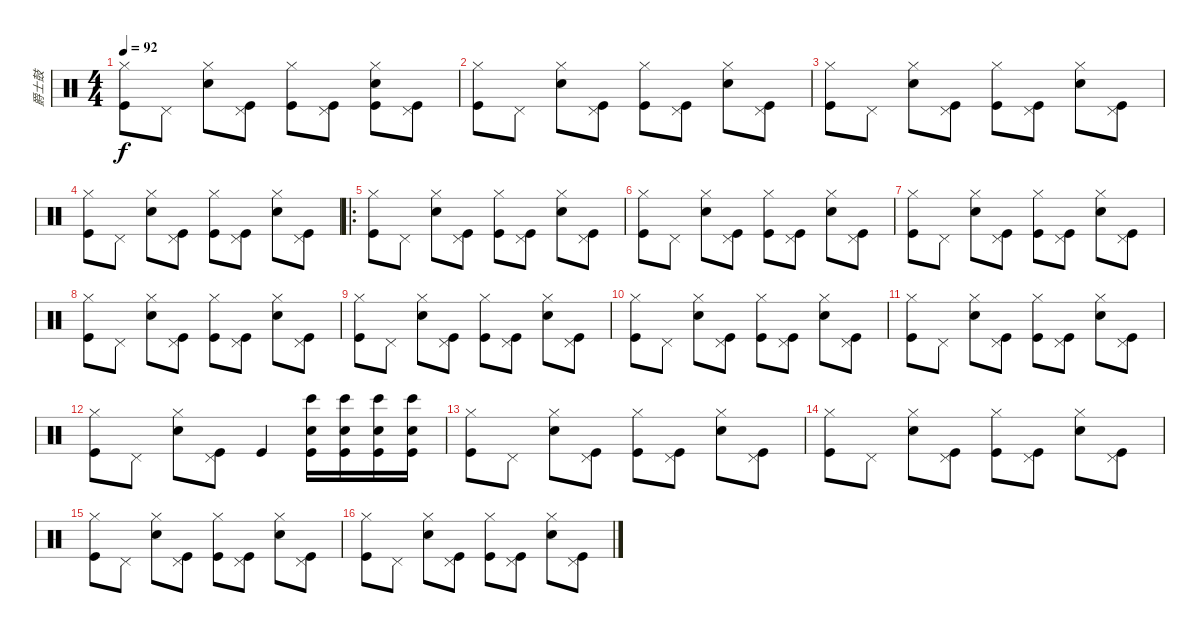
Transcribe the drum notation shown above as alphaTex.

\track ("爵士鼓" "爵士鼓") {instrument percussion}
\staff {score}
\articulation defaults
\ts (4 4)
\tempo 92
\clef neutral
\ks c
("Hi-Hat (closed)" "Kick (hit)").8{dy f} "Pedal Hi-Hat (hit)".8 ("Hi-Hat (closed)" "Snare (hit) 2").8 ("Pedal Hi-Hat (hit)" "Kick (hit)").8 ("Hi-Hat (closed)" "Kick (hit)").8 ("Pedal Hi-Hat (hit)" "Kick (hit)").8 ("Hi-Hat (closed)" "Snare (hit) 2" "Kick (hit)").8 ("Pedal Hi-Hat (hit)" "Kick (hit)").8 |
("Hi-Hat (closed)" "Kick (hit)").8 "Pedal Hi-Hat (hit)".8 ("Hi-Hat (closed)" "Snare (hit) 2").8 ("Pedal Hi-Hat (hit)" "Kick (hit)").8 ("Hi-Hat (closed)" "Kick (hit)").8 ("Pedal Hi-Hat (hit)" "Kick (hit)").8 ("Hi-Hat (closed)" "Snare (hit) 2").8 ("Pedal Hi-Hat (hit)" "Kick (hit)").8 |
("Hi-Hat (closed)" "Kick (hit)").8 "Pedal Hi-Hat (hit)".8 ("Hi-Hat (closed)" "Snare (hit) 2").8 ("Pedal Hi-Hat (hit)" "Kick (hit)").8 ("Hi-Hat (closed)" "Kick (hit)").8 ("Pedal Hi-Hat (hit)" "Kick (hit)").8 ("Hi-Hat (closed)" "Snare (hit) 2").8 ("Pedal Hi-Hat (hit)" "Kick (hit)").8 |
("Hi-Hat (closed)" "Kick (hit)").8 "Pedal Hi-Hat (hit)".8 ("Hi-Hat (closed)" "Snare (hit) 2").8 ("Pedal Hi-Hat (hit)" "Kick (hit)").8 ("Hi-Hat (closed)" "Kick (hit)").8 ("Pedal Hi-Hat (hit)" "Kick (hit)").8 ("Hi-Hat (closed)" "Snare (hit) 2").8 ("Pedal Hi-Hat (hit)" "Kick (hit)").8 |
\ro
("Hi-Hat (closed)" "Kick (hit)").8 "Pedal Hi-Hat (hit)".8 ("Hi-Hat (closed)" "Snare (hit) 2").8 ("Pedal Hi-Hat (hit)" "Kick (hit)").8 ("Hi-Hat (closed)" "Kick (hit)").8 ("Pedal Hi-Hat (hit)" "Kick (hit)").8 ("Hi-Hat (closed)" "Snare (hit) 2").8 ("Pedal Hi-Hat (hit)" "Kick (hit)").8 |
("Hi-Hat (closed)" "Kick (hit)").8 "Pedal Hi-Hat (hit)".8 ("Hi-Hat (closed)" "Snare (hit) 2").8 ("Pedal Hi-Hat (hit)" "Kick (hit)").8 ("Hi-Hat (closed)" "Kick (hit)").8 ("Pedal Hi-Hat (hit)" "Kick (hit)").8 ("Hi-Hat (closed)" "Snare (hit) 2").8 ("Pedal Hi-Hat (hit)" "Kick (hit)").8 |
("Hi-Hat (closed)" "Kick (hit)").8 "Pedal Hi-Hat (hit)".8 ("Hi-Hat (closed)" "Snare (hit) 2").8 ("Pedal Hi-Hat (hit)" "Kick (hit)").8 ("Hi-Hat (closed)" "Kick (hit)").8 ("Pedal Hi-Hat (hit)" "Kick (hit)").8 ("Hi-Hat (closed)" "Snare (hit) 2").8 ("Pedal Hi-Hat (hit)" "Kick (hit)").8 |
("Hi-Hat (closed)" "Kick (hit)").8 "Pedal Hi-Hat (hit)".8 ("Hi-Hat (closed)" "Snare (hit) 2").8 ("Pedal Hi-Hat (hit)" "Kick (hit)").8 ("Hi-Hat (closed)" "Kick (hit)").8 ("Pedal Hi-Hat (hit)" "Kick (hit)").8 ("Hi-Hat (closed)" "Snare (hit) 2").8 ("Pedal Hi-Hat (hit)" "Kick (hit)").8 |
("Hi-Hat (closed)" "Kick (hit)").8 "Pedal Hi-Hat (hit)".8 ("Hi-Hat (closed)" "Snare (hit) 2").8 ("Pedal Hi-Hat (hit)" "Kick (hit)").8 ("Hi-Hat (closed)" "Kick (hit)").8 ("Pedal Hi-Hat (hit)" "Kick (hit)").8 ("Hi-Hat (closed)" "Snare (hit) 2").8 ("Pedal Hi-Hat (hit)" "Kick (hit)").8 |
("Hi-Hat (closed)" "Kick (hit)").8 "Pedal Hi-Hat (hit)".8 ("Hi-Hat (closed)" "Snare (hit) 2").8 ("Pedal Hi-Hat (hit)" "Kick (hit)").8 ("Hi-Hat (closed)" "Kick (hit)").8 ("Pedal Hi-Hat (hit)" "Kick (hit)").8 ("Hi-Hat (closed)" "Snare (hit) 2").8 ("Pedal Hi-Hat (hit)" "Kick (hit)").8 |
("Hi-Hat (closed)" "Kick (hit)").8 "Pedal Hi-Hat (hit)".8 ("Hi-Hat (closed)" "Snare (hit) 2").8 ("Pedal Hi-Hat (hit)" "Kick (hit)").8 ("Hi-Hat (closed)" "Kick (hit)").8 ("Pedal Hi-Hat (hit)" "Kick (hit)").8 ("Hi-Hat (closed)" "Snare (hit) 2").8 ("Pedal Hi-Hat (hit)" "Kick (hit)").8 |
("Hi-Hat (closed)" "Kick (hit)").8 "Pedal Hi-Hat (hit)".8 ("Hi-Hat (closed)" "Snare (hit) 2").8 ("Pedal Hi-Hat (hit)" "Kick (hit)").8 "Kick (hit)".4 ("Bongo High (hit)" "Snare (hit) 2" "Kick (hit)").16 ("Bongo High (hit)" "Snare (hit) 2" "Kick (hit)").16 ("Bongo High (hit)" "Snare (hit) 2" "Kick (hit)").16 ("Bongo High (hit)" "Snare (hit) 2" "Kick (hit)").16 |
("Hi-Hat (closed)" "Kick (hit)").8 "Pedal Hi-Hat (hit)".8 ("Hi-Hat (closed)" "Snare (hit) 2").8 ("Pedal Hi-Hat (hit)" "Kick (hit)").8 ("Hi-Hat (closed)" "Kick (hit)").8 ("Pedal Hi-Hat (hit)" "Kick (hit)").8 ("Hi-Hat (closed)" "Snare (hit) 2").8 ("Pedal Hi-Hat (hit)" "Kick (hit)").8 |
("Hi-Hat (closed)" "Kick (hit)").8 "Pedal Hi-Hat (hit)".8 ("Hi-Hat (closed)" "Snare (hit) 2").8 ("Pedal Hi-Hat (hit)" "Kick (hit)").8 ("Hi-Hat (closed)" "Kick (hit)").8 ("Pedal Hi-Hat (hit)" "Kick (hit)").8 ("Hi-Hat (closed)" "Snare (hit) 2").8 ("Pedal Hi-Hat (hit)" "Kick (hit)").8 |
("Hi-Hat (closed)" "Kick (hit)").8 "Pedal Hi-Hat (hit)".8 ("Hi-Hat (closed)" "Snare (hit) 2").8 ("Pedal Hi-Hat (hit)" "Kick (hit)").8 ("Hi-Hat (closed)" "Kick (hit)").8 ("Pedal Hi-Hat (hit)" "Kick (hit)").8 ("Hi-Hat (closed)" "Snare (hit) 2").8 ("Pedal Hi-Hat (hit)" "Kick (hit)").8 |
("Hi-Hat (closed)" "Kick (hit)").8 "Pedal Hi-Hat (hit)".8 ("Hi-Hat (closed)" "Snare (hit) 2").8 ("Pedal Hi-Hat (hit)" "Kick (hit)").8 ("Hi-Hat (closed)" "Kick (hit)").8 ("Pedal Hi-Hat (hit)" "Kick (hit)").8 ("Hi-Hat (closed)" "Snare (hit) 2").8 ("Pedal Hi-Hat (hit)" "Kick (hit)").8
